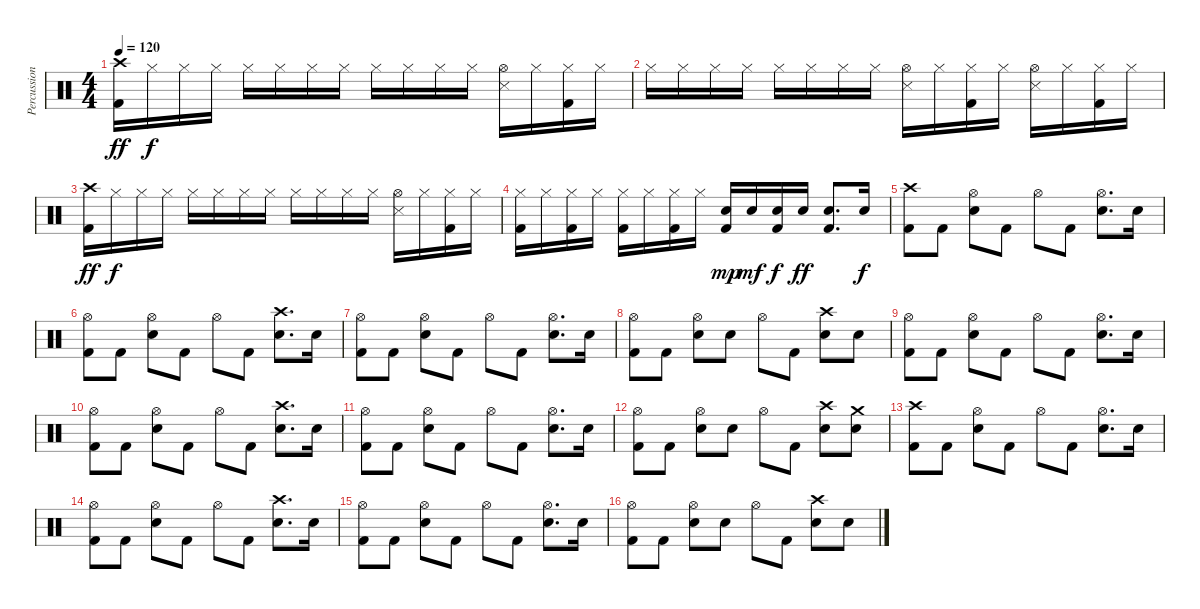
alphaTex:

\track ("Percussion" "Percussion") {instrument percussion}
\staff {score}
\articulation defaults
\ts (4 4)
\tempo 120
\clef neutral
\ks c
("Crash high (hit)" "Kick (hit) 2").16{dy ff} "Hi-Hat (closed)".16{dy f} "Hi-Hat (closed)".16 "Hi-Hat (closed)".16 "Hi-Hat (closed)".16 "Hi-Hat (closed)".16 "Hi-Hat (closed)".16 "Hi-Hat (closed)".16 "Hi-Hat (closed)".16 "Hi-Hat (closed)".16 "Hi-Hat (closed)".16 "Hi-Hat (closed)".16 ("Hi-Hat (open)" "Snare (side stick) 3").16 "Hi-Hat (closed)".16 ("Hi-Hat (closed)" "Kick (hit) 2").16 "Hi-Hat (closed)".16 |
"Hi-Hat (closed)".16 "Hi-Hat (closed)".16 "Hi-Hat (closed)".16 "Hi-Hat (closed)".16 "Hi-Hat (closed)".16 "Hi-Hat (closed)".16 "Hi-Hat (closed)".16 "Hi-Hat (closed)".16 ("Hi-Hat (open)" "Snare (side stick) 3").16 "Hi-Hat (closed)".16 ("Hi-Hat (closed)" "Kick (hit) 2").16 "Hi-Hat (closed)".16 ("Hi-Hat (open)" "Snare (side stick) 3").16 "Hi-Hat (closed)".16 ("Hi-Hat (closed)" "Kick (hit) 2").16 "Hi-Hat (closed)".16 |
("Crash high (hit)" "Kick (hit) 2").16{dy ff} "Hi-Hat (closed)".16{dy f} "Hi-Hat (closed)".16 "Hi-Hat (closed)".16 "Hi-Hat (closed)".16 "Hi-Hat (closed)".16 "Hi-Hat (closed)".16 "Hi-Hat (closed)".16 "Hi-Hat (closed)".16 "Hi-Hat (closed)".16 "Hi-Hat (closed)".16 "Hi-Hat (closed)".16 ("Hi-Hat (open)" "Snare (side stick) 3").16 "Hi-Hat (closed)".16 ("Hi-Hat (closed)" "Kick (hit) 2").16 "Hi-Hat (closed)".16 |
("Hi-Hat (closed)" "Kick (hit) 2").16 "Hi-Hat (closed)".16 ("Hi-Hat (closed)" "Kick (hit) 2").16 "Hi-Hat (closed)".16 ("Hi-Hat (closed)" "Kick (hit) 2").16 "Hi-Hat (closed)".16 ("Hi-Hat (closed)" "Kick (hit) 2").16 "Hi-Hat (closed)".16 ("Snare (hit) 2" "Kick (hit) 2").16{dy mp} "Snare (hit) 2".16{dy mf} ("Snare (hit) 2" "Kick (hit) 2").16{dy f} "Snare (hit) 2".16{dy ff} ("Snare (hit) 2" "Kick (hit) 2").8{d} "Snare (hit) 2".16{dy f} |
("Crash high (hit)" "Kick (hit) 2").8 "Kick (hit) 2".8 ("Hi-Hat (open)" "Electric Snare (hit)").8 "Kick (hit) 2".8 "Hi-Hat (open)".8 "Kick (hit) 2".8 ("Hi-Hat (open)" "Electric Snare (hit)").8{d} "Electric Snare (hit)".16 |
("Hi-Hat (open)" "Kick (hit) 2").8 "Kick (hit) 2".8 ("Hi-Hat (open)" "Electric Snare (hit)").8 "Kick (hit) 2".8 "Hi-Hat (open)".8 "Kick (hit) 2".8 ("Crash high (hit)" "Electric Snare (hit)").8{d} "Electric Snare (hit)".16 |
("Hi-Hat (open)" "Kick (hit) 2").8 "Kick (hit) 2".8 ("Hi-Hat (open)" "Electric Snare (hit)").8 "Kick (hit) 2".8 "Hi-Hat (open)".8 "Kick (hit) 2".8 ("Hi-Hat (open)" "Electric Snare (hit)").8{d} "Electric Snare (hit)".16 |
("Hi-Hat (open)" "Kick (hit) 2").8 "Kick (hit) 2".8 ("Hi-Hat (open)" "Electric Snare (hit)").8 "Electric Snare (hit)".8 "Hi-Hat (open)".8 "Kick (hit) 2".8 ("Crash high (hit)" "Electric Snare (hit)").8 "Electric Snare (hit)".8 |
("Hi-Hat (open)" "Kick (hit) 2").8 "Kick (hit) 2".8 ("Hi-Hat (open)" "Electric Snare (hit)").8 "Kick (hit) 2".8 "Hi-Hat (open)".8 "Kick (hit) 2".8 ("Hi-Hat (open)" "Electric Snare (hit)").8{d} "Electric Snare (hit)".16 |
("Hi-Hat (open)" "Kick (hit) 2").8 "Kick (hit) 2".8 ("Hi-Hat (open)" "Electric Snare (hit)").8 "Kick (hit) 2".8 "Hi-Hat (open)".8 "Kick (hit) 2".8 ("Crash high (hit)" "Electric Snare (hit)").8{d} "Electric Snare (hit)".16 |
("Hi-Hat (open)" "Kick (hit) 2").8 "Kick (hit) 2".8 ("Hi-Hat (open)" "Electric Snare (hit)").8 "Kick (hit) 2".8 "Hi-Hat (open)".8 "Kick (hit) 2".8 ("Hi-Hat (open)" "Electric Snare (hit)").8{d} "Electric Snare (hit)".16 |
("Hi-Hat (open)" "Kick (hit) 2").8 "Kick (hit) 2".8 ("Hi-Hat (open)" "Electric Snare (hit)").8 "Electric Snare (hit)".8 "Hi-Hat (open)".8 "Kick (hit) 2".8 ("Crash high (hit)" "Electric Snare (hit)").8 ("Crash medium (hit)" "Electric Snare (hit)").8 |
("Crash high (hit)" "Kick (hit) 2").8 "Kick (hit) 2".8 ("Hi-Hat (open)" "Electric Snare (hit)").8 "Kick (hit) 2".8 "Hi-Hat (open)".8 "Kick (hit) 2".8 ("Hi-Hat (open)" "Electric Snare (hit)").8{d} "Electric Snare (hit)".16 |
("Hi-Hat (open)" "Kick (hit) 2").8 "Kick (hit) 2".8 ("Hi-Hat (open)" "Electric Snare (hit)").8 "Kick (hit) 2".8 "Hi-Hat (open)".8 "Kick (hit) 2".8 ("Crash high (hit)" "Electric Snare (hit)").8{d} "Electric Snare (hit)".16 |
("Hi-Hat (open)" "Kick (hit) 2").8 "Kick (hit) 2".8 ("Hi-Hat (open)" "Electric Snare (hit)").8 "Kick (hit) 2".8 "Hi-Hat (open)".8 "Kick (hit) 2".8 ("Hi-Hat (open)" "Electric Snare (hit)").8{d} "Electric Snare (hit)".16 |
("Hi-Hat (open)" "Kick (hit) 2").8 "Kick (hit) 2".8 ("Hi-Hat (open)" "Electric Snare (hit)").8 "Electric Snare (hit)".8 "Hi-Hat (open)".8 "Kick (hit) 2".8 ("Crash high (hit)" "Electric Snare (hit)").8 "Electric Snare (hit)".8
